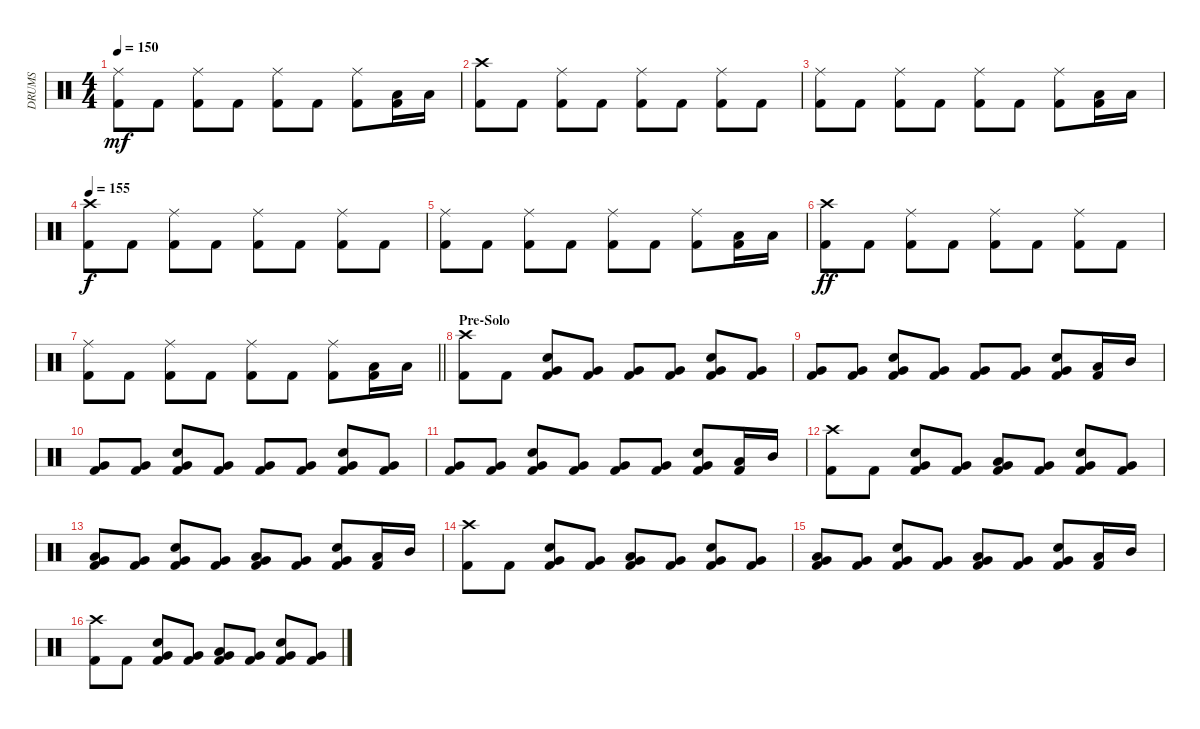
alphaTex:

\track ("DRUMS" "DRUMS") {instrument percussion}
\staff {score}
\articulation defaults
\ts (4 4)
\tempo 150
\clef neutral
\ks c
("Ride (middle)" "Kick (hit) 2").8{dy mf} "Kick (hit) 2".8 ("Ride (middle)" "Kick (hit) 2").8 "Kick (hit) 2".8 ("Ride (middle)" "Kick (hit) 2").8 "Kick (hit) 2".8 ("Ride (middle)" "Kick (hit) 2").8 ("Low Tom (hit)" "Kick (hit) 2").16 "Low Tom (hit)".16 |
("Crash high (hit)" "Kick (hit) 2").8 "Kick (hit) 2".8 ("Ride (middle)" "Kick (hit) 2").8 "Kick (hit) 2".8 ("Ride (middle)" "Kick (hit) 2").8 "Kick (hit) 2".8 ("Ride (middle)" "Kick (hit) 2").8 "Kick (hit) 2".8 |
("Ride (middle)" "Kick (hit) 2").8 "Kick (hit) 2".8 ("Ride (middle)" "Kick (hit) 2").8 "Kick (hit) 2".8 ("Ride (middle)" "Kick (hit) 2").8 "Kick (hit) 2".8 ("Ride (middle)" "Kick (hit) 2").8 ("Low Tom (hit)" "Kick (hit) 2").16 "Low Tom (hit)".16 |
\tempo 155
("Crash high (hit)" "Kick (hit) 2").8{dy f} "Kick (hit) 2".8 ("Ride (middle)" "Kick (hit) 2").8 "Kick (hit) 2".8 ("Ride (middle)" "Kick (hit) 2").8 "Kick (hit) 2".8 ("Ride (middle)" "Kick (hit) 2").8 "Kick (hit) 2".8 |
("Ride (middle)" "Kick (hit) 2").8 "Kick (hit) 2".8 ("Ride (middle)" "Kick (hit) 2").8 "Kick (hit) 2".8 ("Ride (middle)" "Kick (hit) 2").8 "Kick (hit) 2".8 ("Ride (middle)" "Kick (hit) 2").8 ("Low Tom (hit)" "Kick (hit) 2").16 "Low Tom (hit)".16 |
("Crash high (hit)" "Kick (hit) 2").8{dy ff} "Kick (hit) 2".8 ("Ride (middle)" "Kick (hit) 2").8 "Kick (hit) 2".8 ("Ride (middle)" "Kick (hit) 2").8 "Kick (hit) 2".8 ("Ride (middle)" "Kick (hit) 2").8 "Kick (hit) 2".8 |
\barLineRight lightlight
("Ride (middle)" "Kick (hit) 2").8 "Kick (hit) 2".8 ("Ride (middle)" "Kick (hit) 2").8 "Kick (hit) 2".8 ("Ride (middle)" "Kick (hit) 2").8 "Kick (hit) 2".8 ("Ride (middle)" "Kick (hit) 2").8 ("Low Tom (hit)" "Kick (hit) 2").16 "Low Tom (hit)".16 |
\section ("" "Pre-Solo")
("Crash high (hit)" "Kick (hit) 2").8 "Kick (hit) 2".8 ("Snare (hit) 2" "Very Low Tom (hit)" "Kick (hit) 2").8 ("Very Low Tom (hit)" "Kick (hit) 2").8 ("Very Low Tom (hit)" "Kick (hit) 2").8 ("Very Low Tom (hit)" "Kick (hit) 2").8 ("Snare (hit) 2" "Very Low Tom (hit)" "Kick (hit) 2").8 ("Very Low Tom (hit)" "Kick (hit) 2").8 |
("Very Low Tom (hit)" "Kick (hit) 2").8 ("Very Low Tom (hit)" "Kick (hit) 2").8 ("Snare (hit) 2" "Very Low Tom (hit)" "Kick (hit) 2").8 ("Very Low Tom (hit)" "Kick (hit) 2").8 ("Very Low Tom (hit)" "Kick (hit) 2").8 ("Very Low Tom (hit)" "Kick (hit) 2").8 ("Snare (hit) 2" "Very Low Tom (hit)" "Kick (hit) 2").8 ("Low Tom (hit)" "Kick (hit) 2").16 "Mid Tom (hit)".16 |
("Very Low Tom (hit)" "Kick (hit) 2").8 ("Very Low Tom (hit)" "Kick (hit) 2").8 ("Snare (hit) 2" "Very Low Tom (hit)" "Kick (hit) 2").8 ("Very Low Tom (hit)" "Kick (hit) 2").8 ("Very Low Tom (hit)" "Kick (hit) 2").8 ("Very Low Tom (hit)" "Kick (hit) 2").8 ("Snare (hit) 2" "Very Low Tom (hit)" "Kick (hit) 2").8 ("Very Low Tom (hit)" "Kick (hit) 2").8 |
("Very Low Tom (hit)" "Kick (hit) 2").8 ("Very Low Tom (hit)" "Kick (hit) 2").8 ("Snare (hit) 2" "Very Low Tom (hit)" "Kick (hit) 2").8 ("Very Low Tom (hit)" "Kick (hit) 2").8 ("Very Low Tom (hit)" "Kick (hit) 2").8 ("Very Low Tom (hit)" "Kick (hit) 2").8 ("Snare (hit) 2" "Very Low Tom (hit)" "Kick (hit) 2").8 ("Low Tom (hit)" "Kick (hit) 2").16 "Mid Tom (hit)".16 |
("Crash high (hit)" "Kick (hit) 2").8 "Kick (hit) 2".8 ("Snare (hit) 2" "Very Low Tom (hit)" "Kick (hit) 2").8 ("Very Low Tom (hit)" "Kick (hit) 2").8 ("Low Tom (hit)" "Very Low Tom (hit)" "Kick (hit) 2").8 ("Very Low Tom (hit)" "Kick (hit) 2").8 ("Snare (hit) 2" "Very Low Tom (hit)" "Kick (hit) 2").8 ("Very Low Tom (hit)" "Kick (hit) 2").8 |
("Low Tom (hit)" "Very Low Tom (hit)" "Kick (hit) 2").8 ("Very Low Tom (hit)" "Kick (hit) 2").8 ("Snare (hit) 2" "Very Low Tom (hit)" "Kick (hit) 2").8 ("Very Low Tom (hit)" "Kick (hit) 2").8 ("Low Tom (hit)" "Very Low Tom (hit)" "Kick (hit) 2").8 ("Very Low Tom (hit)" "Kick (hit) 2").8 ("Snare (hit) 2" "Very Low Tom (hit)" "Kick (hit) 2").8 ("Low Tom (hit)" "Kick (hit) 2").16 "Mid Tom (hit)".16 |
("Crash high (hit)" "Kick (hit) 2").8 "Kick (hit) 2".8 ("Snare (hit) 2" "Very Low Tom (hit)" "Kick (hit) 2").8 ("Very Low Tom (hit)" "Kick (hit) 2").8 ("Low Tom (hit)" "Very Low Tom (hit)" "Kick (hit) 2").8 ("Very Low Tom (hit)" "Kick (hit) 2").8 ("Snare (hit) 2" "Very Low Tom (hit)" "Kick (hit) 2").8 ("Very Low Tom (hit)" "Kick (hit) 2").8 |
("Low Tom (hit)" "Very Low Tom (hit)" "Kick (hit) 2").8 ("Very Low Tom (hit)" "Kick (hit) 2").8 ("Snare (hit) 2" "Very Low Tom (hit)" "Kick (hit) 2").8 ("Very Low Tom (hit)" "Kick (hit) 2").8 ("Low Tom (hit)" "Very Low Tom (hit)" "Kick (hit) 2").8 ("Very Low Tom (hit)" "Kick (hit) 2").8 ("Snare (hit) 2" "Very Low Tom (hit)" "Kick (hit) 2").8 ("Low Tom (hit)" "Kick (hit) 2").16 "Mid Tom (hit)".16 |
("Crash high (hit)" "Kick (hit) 2").8 "Kick (hit) 2".8 ("Snare (hit) 2" "Very Low Tom (hit)" "Kick (hit) 2").8 ("Very Low Tom (hit)" "Kick (hit) 2").8 ("Low Tom (hit)" "Very Low Tom (hit)" "Kick (hit) 2").8 ("Very Low Tom (hit)" "Kick (hit) 2").8 ("Snare (hit) 2" "Very Low Tom (hit)" "Kick (hit) 2").8 ("Very Low Tom (hit)" "Kick (hit) 2").8
